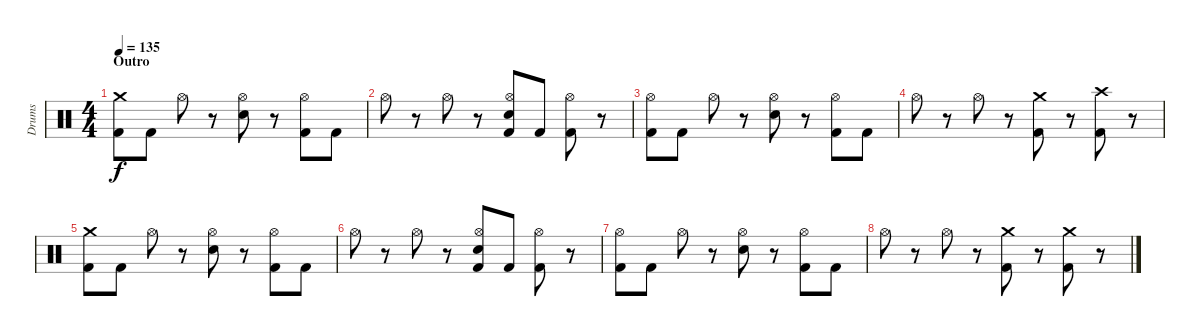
\track ("Drums" "Drums") {instrument percussion}
\staff {score}
\articulation defaults
\ts (4 4)
\section ("" "Outro")
\tempo 135
\clef neutral
\ks c
("Crash medium (hit)" "Kick (hit) 2").8{dy f} "Kick (hit) 2".8 "Hi-Hat (open)".8 r.8 ("Hi-Hat (open)" "Snare (hit) 2").8 r.8 ("Hi-Hat (open)" "Kick (hit) 2").8 "Kick (hit) 2".8 |
"Hi-Hat (open)".8 r.8 "Hi-Hat (open)".8 r.8 ("Hi-Hat (open)" "Snare (hit) 2" "Kick (hit) 2").8 "Kick (hit) 2".8 ("Hi-Hat (open)" "Kick (hit) 2").8 r.8 |
("Hi-Hat (open)" "Kick (hit) 2").8 "Kick (hit) 2".8 "Hi-Hat (open)".8 r.8 ("Hi-Hat (open)" "Snare (hit) 2").8 r.8 ("Hi-Hat (open)" "Kick (hit) 2").8 "Kick (hit) 2".8 |
"Hi-Hat (open)".8 r.8 "Hi-Hat (open)".8 r.8 ("Crash medium (hit)" "Kick (hit) 2").8 r.8 ("Crash high (hit)" "Kick (hit) 2").8 r.8 |
("Crash medium (hit)" "Kick (hit) 2").8 "Kick (hit) 2".8 "Hi-Hat (open)".8 r.8 ("Hi-Hat (open)" "Snare (hit) 2").8 r.8 ("Hi-Hat (open)" "Kick (hit) 2").8 "Kick (hit) 2".8 |
"Hi-Hat (open)".8 r.8 "Hi-Hat (open)".8 r.8 ("Hi-Hat (open)" "Snare (hit) 2" "Kick (hit) 2").8 "Kick (hit) 2".8 ("Hi-Hat (open)" "Kick (hit) 2").8 r.8 |
("Hi-Hat (open)" "Kick (hit) 2").8 "Kick (hit) 2".8 "Hi-Hat (open)".8 r.8 ("Hi-Hat (open)" "Snare (hit) 2").8 r.8 ("Hi-Hat (open)" "Kick (hit) 2").8 "Kick (hit) 2".8 |
"Hi-Hat (open)".8 r.8 "Hi-Hat (open)".8 r.8 ("Crash medium (hit)" "Kick (hit) 2").8 r.8 ("Crash medium (hit)" "Kick (hit) 2").8 r.8
